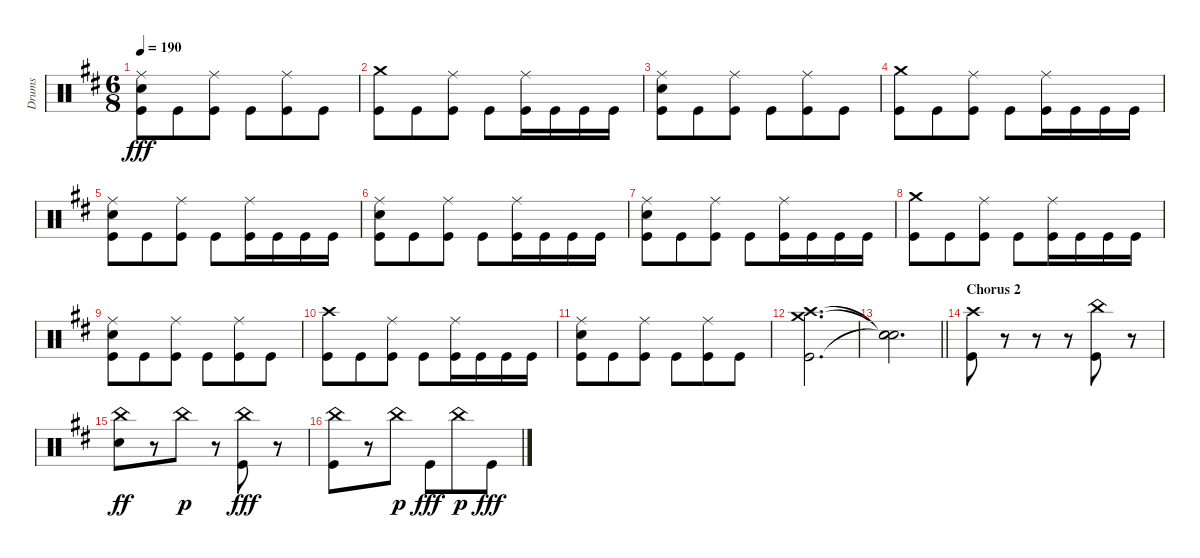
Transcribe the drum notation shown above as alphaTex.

\track ("Drums" "Drums") {instrument percussion}
\staff {score}
\articulation defaults
\ts (6 8)
\tempo 190
\clef neutral
\ks bminor
("Ride (middle)" "Snare (hit) 2" "Kick (hit)").8{dy fff} "Kick (hit)".8 ("Ride (middle)" "Kick (hit)").8 "Kick (hit)".8 ("Ride (middle)" "Kick (hit)").8 "Kick (hit)".8 |
("Crash medium (hit)" "Kick (hit)").8 "Kick (hit)".8 ("Ride (middle)" "Kick (hit)").8 "Kick (hit)".8 ("Ride (middle)" "Kick (hit)").16 "Kick (hit)".16 "Kick (hit)".16 "Kick (hit)".16 |
("Ride (middle)" "Snare (hit) 2" "Kick (hit)").8 "Kick (hit)".8 ("Ride (middle)" "Kick (hit)").8 "Kick (hit)".8 ("Ride (middle)" "Kick (hit)").8 "Kick (hit)".8 |
("Crash medium (hit)" "Kick (hit)").8 "Kick (hit)".8 ("Ride (middle)" "Kick (hit)").8 "Kick (hit)".8 ("Ride (middle)" "Kick (hit)").16 "Kick (hit)".16 "Kick (hit)".16 "Kick (hit)".16 |
("Ride (middle)" "Snare (hit) 2" "Kick (hit)").8 "Kick (hit)".8 ("Ride (middle)" "Kick (hit)").8 "Kick (hit)".8 ("Ride (middle)" "Kick (hit)").16 "Kick (hit)".16 "Kick (hit)".16 "Kick (hit)".16 |
("Ride (middle)" "Snare (hit) 2" "Kick (hit)").8 "Kick (hit)".8 ("Ride (middle)" "Kick (hit)").8 "Kick (hit)".8 ("Ride (middle)" "Kick (hit)").16 "Kick (hit)".16 "Kick (hit)".16 "Kick (hit)".16 |
("Ride (middle)" "Snare (hit) 2" "Kick (hit)").8 "Kick (hit)".8 ("Ride (middle)" "Kick (hit)").8 "Kick (hit)".8 ("Ride (middle)" "Kick (hit)").16 "Kick (hit)".16 "Kick (hit)".16 "Kick (hit)".16 |
("Crash medium (hit)" "Kick (hit)").8 "Kick (hit)".8 ("Ride (middle)" "Kick (hit)").8 "Kick (hit)".8 ("Ride (middle)" "Kick (hit)").16 "Kick (hit)".16 "Kick (hit)".16 "Kick (hit)".16 |
("Ride (middle)" "Snare (hit) 2" "Kick (hit)").8 "Kick (hit)".8 ("Ride (middle)" "Kick (hit)").8 "Kick (hit)".8 ("Ride (middle)" "Kick (hit)").8 "Kick (hit)".8 |
("Crash high (hit)" "Kick (hit)").8 "Kick (hit)".8 ("Ride (middle)" "Kick (hit)").8 "Kick (hit)".8 ("Ride (middle)" "Kick (hit)").16 "Kick (hit)".16 "Kick (hit)".16 "Kick (hit)".16 |
("Ride (middle)" "Snare (hit) 2" "Kick (hit)").8 "Kick (hit)".8 ("Ride (middle)" "Kick (hit)").8 "Kick (hit)".8 ("Ride (middle)" "Kick (hit)").8 "Kick (hit)".8 |
("Crash high (hit)" "Crash medium (hit)" "Kick (hit)").2{d} |
\barLineRight lightlight
("Snare (hit)"{t} "Snare (hit)"{t} "Snare (hit)"{t}).2{d} |
\section ("" "Chorus 2")
("Crash high (hit)" "Kick (hit)").8 r.8 r.8 r.8 ("China (hit)" "Kick (hit)").8 r.8 |
("China (hit)" "Snare (hit) 2").8{dy ff} r.8 "China (hit)".8{dy p} r.8 ("China (hit)" "Kick (hit)").8{dy fff} r.8 |
("China (hit)" "Kick (hit)").8 r.8 "China (hit)".8{dy p} "Kick (hit)".8{dy fff} "China (hit)".8{dy p} "Kick (hit)".8{dy fff}
